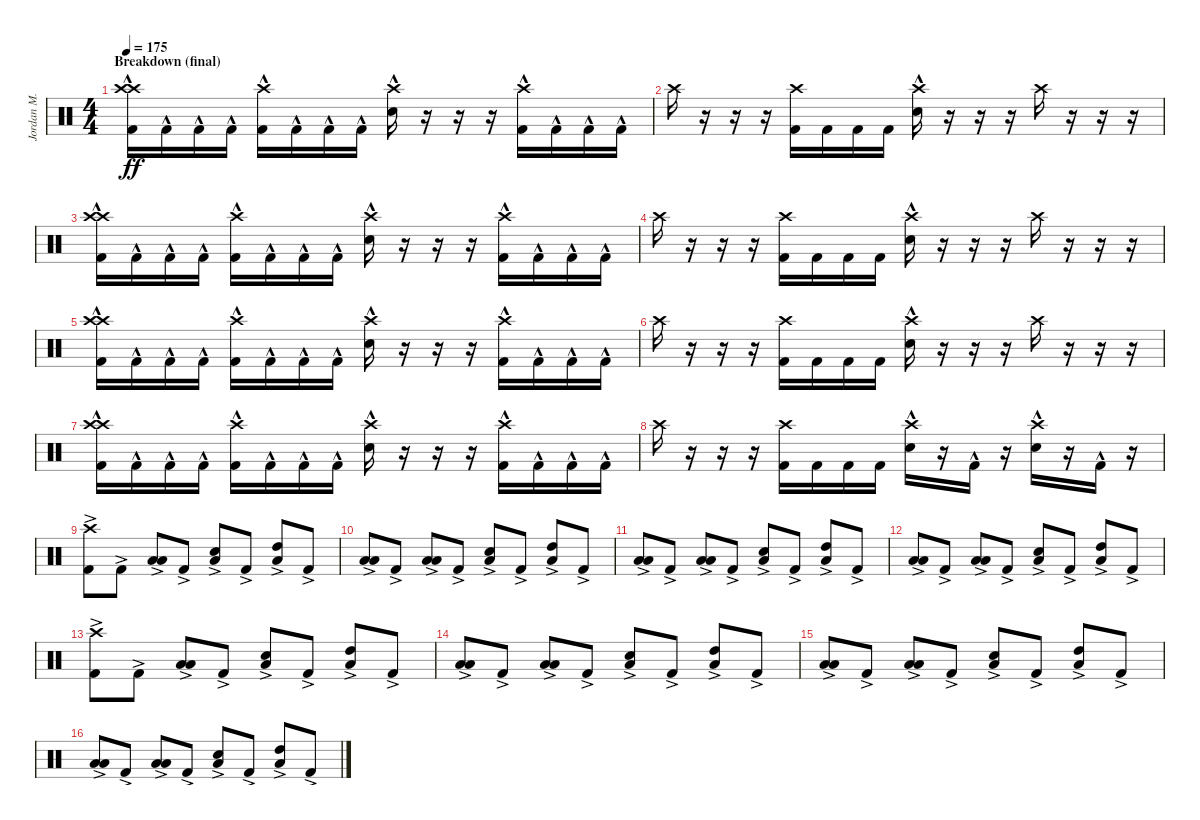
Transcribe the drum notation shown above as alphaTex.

\track ("Jordan M." "Jordan M.") {instrument percussion}
\staff {score}
\articulation defaults
\ts (4 4)
\section ("" "Breakdown (final)")
\tempo 175
\clef neutral
\ks c
("Crash high (hit)" "Crash high (hit)" "Kick (hit) 2"{hac}).16{dy ff} "Kick (hit) 2"{hac}.16 "Kick (hit) 2"{hac}.16 "Kick (hit) 2"{hac}.16 ("Crash high (hit)" "Kick (hit) 2"{hac}).16 "Kick (hit) 2"{hac}.16 "Kick (hit) 2"{hac}.16 "Kick (hit) 2"{hac}.16 ("Crash high (hit)" "Electric Snare (hit)"{hac}).16 r.16 r.16 r.16 ("Crash high (hit)" "Kick (hit) 2"{hac}).16 "Kick (hit) 2"{hac}.16 "Kick (hit) 2"{hac}.16 "Kick (hit) 2"{hac}.16 |
"Crash high (hit)".16 r.16 r.16 r.16 ("Crash high (hit)" "Kick (hit) 2").16 "Kick (hit) 2".16 "Kick (hit) 2".16 "Kick (hit) 2".16 ("Crash high (hit)" "Electric Snare (hit)"{hac}).16 r.16 r.16 r.16 "Crash high (hit)".16 r.16 r.16 r.16 |
("Crash high (hit)" "Crash high (hit)" "Kick (hit) 2"{hac}).16 "Kick (hit) 2"{hac}.16 "Kick (hit) 2"{hac}.16 "Kick (hit) 2"{hac}.16 ("Crash high (hit)" "Kick (hit) 2"{hac}).16 "Kick (hit) 2"{hac}.16 "Kick (hit) 2"{hac}.16 "Kick (hit) 2"{hac}.16 ("Crash high (hit)" "Electric Snare (hit)"{hac}).16 r.16 r.16 r.16 ("Crash high (hit)" "Kick (hit) 2"{hac}).16 "Kick (hit) 2"{hac}.16 "Kick (hit) 2"{hac}.16 "Kick (hit) 2"{hac}.16 |
"Crash high (hit)".16 r.16 r.16 r.16 ("Crash high (hit)" "Kick (hit) 2").16 "Kick (hit) 2".16 "Kick (hit) 2".16 "Kick (hit) 2".16 ("Crash high (hit)" "Electric Snare (hit)"{hac}).16 r.16 r.16 r.16 "Crash high (hit)".16 r.16 r.16 r.16 |
("Crash high (hit)" "Crash high (hit)" "Kick (hit) 2"{hac}).16 "Kick (hit) 2"{hac}.16 "Kick (hit) 2"{hac}.16 "Kick (hit) 2"{hac}.16 ("Crash high (hit)" "Kick (hit) 2"{hac}).16 "Kick (hit) 2"{hac}.16 "Kick (hit) 2"{hac}.16 "Kick (hit) 2"{hac}.16 ("Crash high (hit)" "Electric Snare (hit)"{hac}).16 r.16 r.16 r.16 ("Crash high (hit)" "Kick (hit) 2"{hac}).16 "Kick (hit) 2"{hac}.16 "Kick (hit) 2"{hac}.16 "Kick (hit) 2"{hac}.16 |
"Crash high (hit)".16 r.16 r.16 r.16 ("Crash high (hit)" "Kick (hit) 2").16 "Kick (hit) 2".16 "Kick (hit) 2".16 "Kick (hit) 2".16 ("Crash high (hit)" "Electric Snare (hit)"{hac}).16 r.16 r.16 r.16 "Crash high (hit)".16 r.16 r.16 r.16 |
("Crash high (hit)" "Crash high (hit)" "Kick (hit) 2"{hac}).16 "Kick (hit) 2"{hac}.16 "Kick (hit) 2"{hac}.16 "Kick (hit) 2"{hac}.16 ("Crash high (hit)" "Kick (hit) 2"{hac}).16 "Kick (hit) 2"{hac}.16 "Kick (hit) 2"{hac}.16 "Kick (hit) 2"{hac}.16 ("Crash high (hit)" "Electric Snare (hit)"{hac}).16 r.16 r.16 r.16 ("Crash high (hit)" "Kick (hit) 2"{hac}).16 "Kick (hit) 2"{hac}.16 "Kick (hit) 2"{hac}.16 "Kick (hit) 2"{hac}.16 |
"Crash high (hit)".16 r.16 r.16 r.16 ("Crash high (hit)" "Kick (hit) 2").16 "Kick (hit) 2".16 "Kick (hit) 2".16 "Kick (hit) 2".16 ("Crash high (hit)" "Electric Snare (hit)"{hac}).16 r.16 "Kick (hit) 2"{hac}.16 r.16 ("Crash high (hit)" "Electric Snare (hit)"{hac}).16 r.16 "Kick (hit) 2"{hac}.16 r.16 |
("Crash high (hit)"{ac} "Kick (hit) 2").8 "Kick (hit) 2"{ac}.8 ("Low Floor Tom (hit)"{ac} "Low Tom (hit)").8 "Kick (hit) 2"{ac}.8 ("Low Floor Tom (hit)" "Electric Snare (hit)"{ac}).8 "Kick (hit) 2"{ac}.8 ("Low Floor Tom (hit)" "High Tom (hit)"{ac}).8 "Kick (hit) 2"{ac}.8 |
("Low Floor Tom (hit)" "Low Tom (hit)"{ac}).8 "Kick (hit) 2"{ac}.8 ("Low Floor Tom (hit)" "Low Tom (hit)"{ac}).8 "Kick (hit) 2"{ac}.8 ("Low Floor Tom (hit)" "Electric Snare (hit)"{ac}).8 "Kick (hit) 2"{ac}.8 ("Low Floor Tom (hit)" "High Tom (hit)"{ac}).8 "Kick (hit) 2"{ac}.8 |
("Low Floor Tom (hit)" "Low Tom (hit)"{ac}).8 "Kick (hit) 2"{ac}.8 ("Low Floor Tom (hit)" "Low Tom (hit)"{ac}).8 "Kick (hit) 2"{ac}.8 ("Low Floor Tom (hit)" "Electric Snare (hit)"{ac}).8 "Kick (hit) 2"{ac}.8 ("Low Floor Tom (hit)" "High Tom (hit)"{ac}).8 "Kick (hit) 2"{ac}.8 |
("Low Floor Tom (hit)" "Low Tom (hit)"{ac}).8 "Kick (hit) 2"{ac}.8 ("Low Floor Tom (hit)" "Low Tom (hit)"{ac}).8 "Kick (hit) 2"{ac}.8 ("Low Floor Tom (hit)" "Electric Snare (hit)"{ac}).8 "Kick (hit) 2"{ac}.8 ("Low Floor Tom (hit)" "High Tom (hit)"{ac}).8 "Kick (hit) 2"{ac}.8 |
("Crash high (hit)"{ac} "Kick (hit) 2").8 "Kick (hit) 2"{ac}.8 ("Low Floor Tom (hit)" "Low Tom (hit)"{ac}).8 "Kick (hit) 2"{ac}.8 ("Low Floor Tom (hit)" "Electric Snare (hit)"{ac}).8 "Kick (hit) 2"{ac}.8 ("Low Floor Tom (hit)" "High Tom (hit)"{ac}).8 "Kick (hit) 2"{ac}.8 |
("Low Floor Tom (hit)" "Low Tom (hit)"{ac}).8 "Kick (hit) 2"{ac}.8 ("Low Floor Tom (hit)" "Low Tom (hit)"{ac}).8 "Kick (hit) 2"{ac}.8 ("Low Floor Tom (hit)" "Electric Snare (hit)"{ac}).8 "Kick (hit) 2"{ac}.8 ("Low Floor Tom (hit)" "High Tom (hit)"{ac}).8 "Kick (hit) 2"{ac}.8 |
("Low Floor Tom (hit)" "Low Tom (hit)"{ac}).8 "Kick (hit) 2"{ac}.8 ("Low Floor Tom (hit)" "Low Tom (hit)"{ac}).8 "Kick (hit) 2"{ac}.8 ("Low Floor Tom (hit)" "Electric Snare (hit)"{ac}).8 "Kick (hit) 2"{ac}.8 ("Low Floor Tom (hit)" "High Tom (hit)"{ac}).8 "Kick (hit) 2"{ac}.8 |
("Low Floor Tom (hit)" "Low Tom (hit)"{ac}).8 "Kick (hit) 2"{ac}.8 ("Low Floor Tom (hit)" "Low Tom (hit)"{ac}).8 "Kick (hit) 2"{ac}.8 ("Low Floor Tom (hit)" "Electric Snare (hit)"{ac}).8 "Kick (hit) 2"{ac}.8 ("Low Floor Tom (hit)" "High Tom (hit)"{ac}).8 "Kick (hit) 2"{ac}.8
